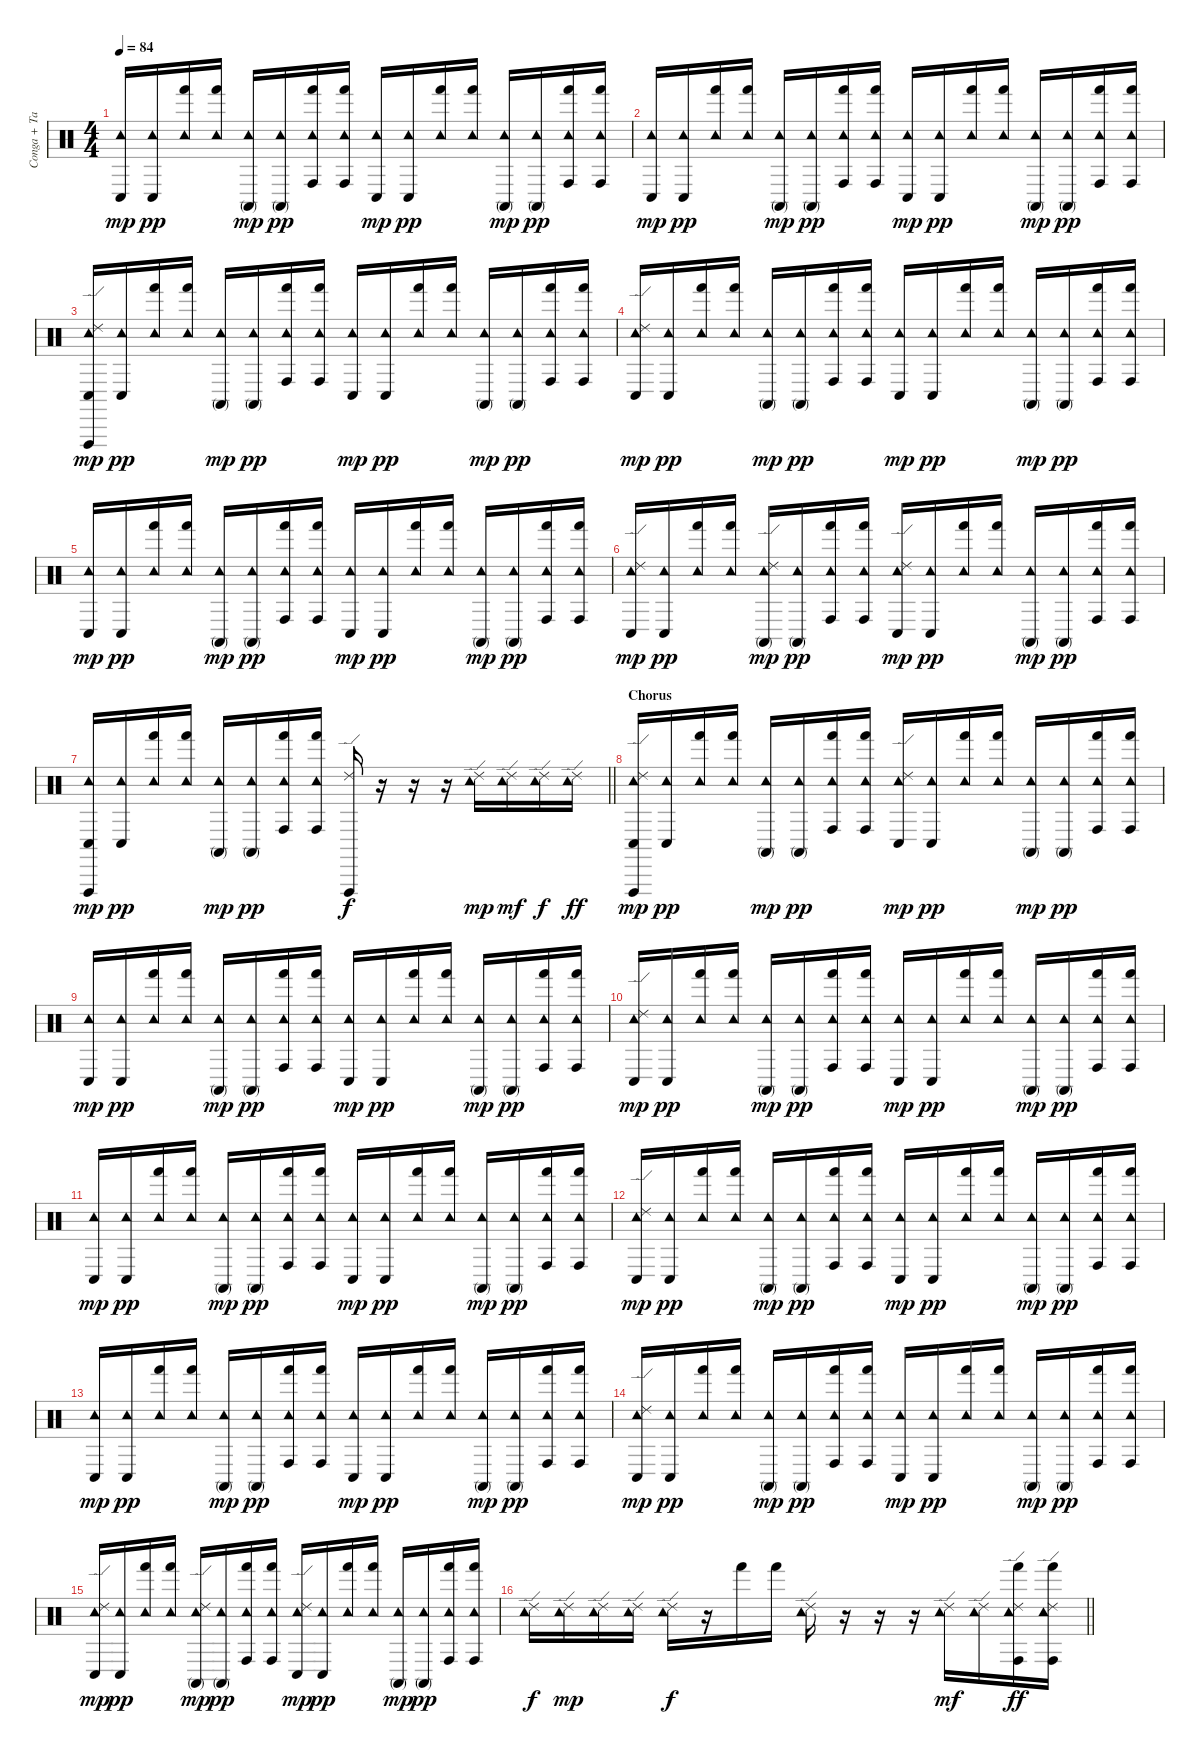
\track ("Conga + Tambourine" "Conga + Ta") {instrument percussion}
\staff {score}
\articulation defaults
\ts (4 4)
\tempo 84
\clef neutral
\ks c
("Conga low (hit)" "Tambourine (hit)").16{dy mp} ("Conga low (hit)" "Tambourine (hit)").16{dy pp} ("Hand (hit)" "Tambourine (hit)").16 ("Hand (hit)" "Tambourine (hit)").16 ("Conga high (mute)" "Tambourine (hit)").16{dy mp} ("Conga high (mute)" "Tambourine (hit)").16{dy pp} ("Conga high (hit)" "Hand (hit)" "Tambourine (hit)").16 ("Conga high (hit)" "Hand (hit)" "Tambourine (hit)").16 ("Conga low (hit)" "Tambourine (hit)").16{dy mp} ("Conga low (hit)" "Tambourine (hit)").16{dy pp} ("Hand (hit)" "Tambourine (hit)").16 ("Hand (hit)" "Tambourine (hit)").16 ("Conga high (mute)" "Tambourine (hit)").16{dy mp} ("Conga high (mute)" "Tambourine (hit)").16{dy pp} ("Conga high (hit)" "Hand (hit)" "Tambourine (hit)").16 ("Conga high (hit)" "Hand (hit)" "Tambourine (hit)").16 |
("Conga low (hit)" "Tambourine (hit)").16{dy mp} ("Conga low (hit)" "Tambourine (hit)").16{dy pp} ("Hand (hit)" "Tambourine (hit)").16 ("Hand (hit)" "Tambourine (hit)").16 ("Conga high (mute)" "Tambourine (hit)").16{dy mp} ("Conga high (mute)" "Tambourine (hit)").16{dy pp} ("Conga high (hit)" "Hand (hit)" "Tambourine (hit)").16 ("Conga high (hit)" "Hand (hit)" "Tambourine (hit)").16 ("Conga low (hit)" "Tambourine (hit)").16{dy mp} ("Conga low (hit)" "Tambourine (hit)").16{dy pp} ("Hand (hit)" "Tambourine (hit)").16 ("Hand (hit)" "Tambourine (hit)").16 ("Conga high (mute)" "Tambourine (hit)").16{dy mp} ("Conga high (mute)" "Tambourine (hit)").16{dy pp} ("Conga high (hit)" "Hand (hit)" "Tambourine (hit)").16 ("Conga high (hit)" "Hand (hit)" "Tambourine (hit)").16 |
("Conga low (hit)" "Vibraslap (hit)" "Tambourine (hit)" "Ride (edge) 2").16{dy mp} ("Conga low (hit)" "Tambourine (hit)").16{dy pp} ("Hand (hit)" "Tambourine (hit)").16 ("Hand (hit)" "Tambourine (hit)").16 ("Conga high (mute)" "Tambourine (hit)").16{dy mp} ("Conga high (mute)" "Tambourine (hit)").16{dy pp} ("Conga high (hit)" "Hand (hit)" "Tambourine (hit)").16 ("Conga high (hit)" "Hand (hit)" "Tambourine (hit)").16 ("Conga low (hit)" "Tambourine (hit)").16{dy mp} ("Conga low (hit)" "Tambourine (hit)").16{dy pp} ("Hand (hit)" "Tambourine (hit)").16 ("Hand (hit)" "Tambourine (hit)").16 ("Conga high (mute)" "Tambourine (hit)").16{dy mp} ("Conga high (mute)" "Tambourine (hit)").16{dy pp} ("Conga high (hit)" "Hand (hit)" "Tambourine (hit)").16 ("Conga high (hit)" "Hand (hit)" "Tambourine (hit)").16 |
("Conga low (hit)" "Tambourine (hit)" "Ride (edge) 2").16{dy mp} ("Conga low (hit)" "Tambourine (hit)").16{dy pp} ("Hand (hit)" "Tambourine (hit)").16 ("Hand (hit)" "Tambourine (hit)").16 ("Conga high (mute)" "Tambourine (hit)").16{dy mp} ("Conga high (mute)" "Tambourine (hit)").16{dy pp} ("Conga high (hit)" "Hand (hit)" "Tambourine (hit)").16 ("Conga high (hit)" "Hand (hit)" "Tambourine (hit)").16 ("Conga low (hit)" "Tambourine (hit)").16{dy mp} ("Conga low (hit)" "Tambourine (hit)").16{dy pp} ("Hand (hit)" "Tambourine (hit)").16 ("Hand (hit)" "Tambourine (hit)").16 ("Conga high (mute)" "Tambourine (hit)").16{dy mp} ("Conga high (mute)" "Tambourine (hit)").16{dy pp} ("Conga high (hit)" "Hand (hit)" "Tambourine (hit)").16 ("Conga high (hit)" "Hand (hit)" "Tambourine (hit)").16 |
("Conga low (hit)" "Tambourine (hit)").16{dy mp} ("Conga low (hit)" "Tambourine (hit)").16{dy pp} ("Hand (hit)" "Tambourine (hit)").16 ("Hand (hit)" "Tambourine (hit)").16 ("Conga high (mute)" "Tambourine (hit)").16{dy mp} ("Conga high (mute)" "Tambourine (hit)").16{dy pp} ("Conga high (hit)" "Hand (hit)" "Tambourine (hit)").16 ("Conga high (hit)" "Hand (hit)" "Tambourine (hit)").16 ("Conga low (hit)" "Tambourine (hit)").16{dy mp} ("Conga low (hit)" "Tambourine (hit)").16{dy pp} ("Hand (hit)" "Tambourine (hit)").16 ("Hand (hit)" "Tambourine (hit)").16 ("Conga high (mute)" "Tambourine (hit)").16{dy mp} ("Conga high (mute)" "Tambourine (hit)").16{dy pp} ("Conga high (hit)" "Hand (hit)" "Tambourine (hit)").16 ("Conga high (hit)" "Hand (hit)" "Tambourine (hit)").16 |
("Conga low (hit)" "Tambourine (hit)" "Ride (edge) 2").16{dy mp} ("Conga low (hit)" "Tambourine (hit)").16{dy pp} ("Hand (hit)" "Tambourine (hit)").16 ("Hand (hit)" "Tambourine (hit)").16 ("Conga high (mute)" "Tambourine (hit)" "Ride (edge) 2").16{dy mp} ("Conga high (mute)" "Tambourine (hit)").16{dy pp} ("Conga high (hit)" "Hand (hit)" "Tambourine (hit)").16 ("Conga high (hit)" "Hand (hit)" "Tambourine (hit)").16 ("Conga low (hit)" "Tambourine (hit)" "Ride (edge) 2").16{dy mp} ("Conga low (hit)" "Tambourine (hit)").16{dy pp} ("Hand (hit)" "Tambourine (hit)").16 ("Hand (hit)" "Tambourine (hit)").16 ("Conga high (mute)" "Tambourine (hit)").16{dy mp} ("Conga high (mute)" "Tambourine (hit)").16{dy pp} ("Conga high (hit)" "Hand (hit)" "Tambourine (hit)").16 ("Conga high (hit)" "Hand (hit)" "Tambourine (hit)").16 |
\barLineRight lightlight
("Conga low (hit)" "Vibraslap (hit)" "Tambourine (hit)").16{dy mp} ("Conga low (hit)" "Tambourine (hit)").16{dy pp} ("Hand (hit)" "Tambourine (hit)").16 ("Hand (hit)" "Tambourine (hit)").16 ("Conga high (mute)" "Tambourine (hit)").16{dy mp} ("Conga high (mute)" "Tambourine (hit)").16{dy pp} ("Conga high (hit)" "Hand (hit)" "Tambourine (hit)").16 ("Conga high (hit)" "Hand (hit)" "Tambourine (hit)").16 ("Vibraslap (hit)" "Ride (edge) 2").16{dy f} r.16 r.16 r.16 ("Tambourine (hit)" "Ride (edge) 2").16{dy mp} ("Tambourine (hit)" "Ride (edge) 2").16{dy mf} ("Tambourine (hit)" "Ride (edge) 2").16{dy f} ("Tambourine (hit)" "Ride (edge) 2").16{dy ff} |
\section ("" "Chorus")
("Conga low (hit)" "Vibraslap (hit)" "Tambourine (hit)" "Ride (edge) 2").16{dy mp} ("Conga low (hit)" "Tambourine (hit)").16{dy pp} ("Hand (hit)" "Tambourine (hit)").16 ("Hand (hit)" "Tambourine (hit)").16 ("Conga high (mute)" "Tambourine (hit)").16{dy mp} ("Conga high (mute)" "Tambourine (hit)").16{dy pp} ("Conga high (hit)" "Hand (hit)" "Tambourine (hit)").16 ("Conga high (hit)" "Hand (hit)" "Tambourine (hit)").16 ("Conga low (hit)" "Tambourine (hit)" "Ride (edge) 2").16{dy mp} ("Conga low (hit)" "Tambourine (hit)").16{dy pp} ("Hand (hit)" "Tambourine (hit)").16 ("Hand (hit)" "Tambourine (hit)").16 ("Conga high (mute)" "Tambourine (hit)").16{dy mp} ("Conga high (mute)" "Tambourine (hit)").16{dy pp} ("Conga high (hit)" "Hand (hit)" "Tambourine (hit)").16 ("Conga high (hit)" "Hand (hit)" "Tambourine (hit)").16 |
("Conga low (hit)" "Tambourine (hit)").16{dy mp} ("Conga low (hit)" "Tambourine (hit)").16{dy pp} ("Hand (hit)" "Tambourine (hit)").16 ("Hand (hit)" "Tambourine (hit)").16 ("Conga high (mute)" "Tambourine (hit)").16{dy mp} ("Conga high (mute)" "Tambourine (hit)").16{dy pp} ("Conga high (hit)" "Hand (hit)" "Tambourine (hit)").16 ("Conga high (hit)" "Hand (hit)" "Tambourine (hit)").16 ("Conga low (hit)" "Tambourine (hit)").16{dy mp} ("Conga low (hit)" "Tambourine (hit)").16{dy pp} ("Hand (hit)" "Tambourine (hit)").16 ("Hand (hit)" "Tambourine (hit)").16 ("Conga high (mute)" "Tambourine (hit)").16{dy mp} ("Conga high (mute)" "Tambourine (hit)").16{dy pp} ("Conga high (hit)" "Hand (hit)" "Tambourine (hit)").16 ("Conga high (hit)" "Hand (hit)" "Tambourine (hit)").16 |
("Conga low (hit)" "Tambourine (hit)" "Ride (edge) 2").16{dy mp} ("Conga low (hit)" "Tambourine (hit)").16{dy pp} ("Hand (hit)" "Tambourine (hit)").16 ("Hand (hit)" "Tambourine (hit)").16 ("Conga high (mute)" "Tambourine (hit)").16{dy mp} ("Conga high (mute)" "Tambourine (hit)").16{dy pp} ("Conga high (hit)" "Hand (hit)" "Tambourine (hit)").16 ("Conga high (hit)" "Hand (hit)" "Tambourine (hit)").16 ("Conga low (hit)" "Tambourine (hit)").16{dy mp} ("Conga low (hit)" "Tambourine (hit)").16{dy pp} ("Hand (hit)" "Tambourine (hit)").16 ("Hand (hit)" "Tambourine (hit)").16 ("Conga high (mute)" "Tambourine (hit)").16{dy mp} ("Conga high (mute)" "Tambourine (hit)").16{dy pp} ("Conga high (hit)" "Hand (hit)" "Tambourine (hit)").16 ("Conga high (hit)" "Hand (hit)" "Tambourine (hit)").16 |
("Conga low (hit)" "Tambourine (hit)").16{dy mp} ("Conga low (hit)" "Tambourine (hit)").16{dy pp} ("Hand (hit)" "Tambourine (hit)").16 ("Hand (hit)" "Tambourine (hit)").16 ("Conga high (mute)" "Tambourine (hit)").16{dy mp} ("Conga high (mute)" "Tambourine (hit)").16{dy pp} ("Conga high (hit)" "Hand (hit)" "Tambourine (hit)").16 ("Conga high (hit)" "Hand (hit)" "Tambourine (hit)").16 ("Conga low (hit)" "Tambourine (hit)").16{dy mp} ("Conga low (hit)" "Tambourine (hit)").16{dy pp} ("Hand (hit)" "Tambourine (hit)").16 ("Hand (hit)" "Tambourine (hit)").16 ("Conga high (mute)" "Tambourine (hit)").16{dy mp} ("Conga high (mute)" "Tambourine (hit)").16{dy pp} ("Conga high (hit)" "Hand (hit)" "Tambourine (hit)").16 ("Conga high (hit)" "Hand (hit)" "Tambourine (hit)").16 |
("Conga low (hit)" "Tambourine (hit)" "Ride (edge) 2").16{dy mp} ("Conga low (hit)" "Tambourine (hit)").16{dy pp} ("Hand (hit)" "Tambourine (hit)").16 ("Hand (hit)" "Tambourine (hit)").16 ("Conga high (mute)" "Tambourine (hit)").16{dy mp} ("Conga high (mute)" "Tambourine (hit)").16{dy pp} ("Conga high (hit)" "Hand (hit)" "Tambourine (hit)").16 ("Conga high (hit)" "Hand (hit)" "Tambourine (hit)").16 ("Conga low (hit)" "Tambourine (hit)").16{dy mp} ("Conga low (hit)" "Tambourine (hit)").16{dy pp} ("Hand (hit)" "Tambourine (hit)").16 ("Hand (hit)" "Tambourine (hit)").16 ("Conga high (mute)" "Tambourine (hit)").16{dy mp} ("Conga high (mute)" "Tambourine (hit)").16{dy pp} ("Conga high (hit)" "Hand (hit)" "Tambourine (hit)").16 ("Conga high (hit)" "Hand (hit)" "Tambourine (hit)").16 |
("Conga low (hit)" "Tambourine (hit)").16{dy mp} ("Conga low (hit)" "Tambourine (hit)").16{dy pp} ("Hand (hit)" "Tambourine (hit)").16 ("Hand (hit)" "Tambourine (hit)").16 ("Conga high (mute)" "Tambourine (hit)").16{dy mp} ("Conga high (mute)" "Tambourine (hit)").16{dy pp} ("Conga high (hit)" "Hand (hit)" "Tambourine (hit)").16 ("Conga high (hit)" "Hand (hit)" "Tambourine (hit)").16 ("Conga low (hit)" "Tambourine (hit)").16{dy mp} ("Conga low (hit)" "Tambourine (hit)").16{dy pp} ("Hand (hit)" "Tambourine (hit)").16 ("Hand (hit)" "Tambourine (hit)").16 ("Conga high (mute)" "Tambourine (hit)").16{dy mp} ("Conga high (mute)" "Tambourine (hit)").16{dy pp} ("Conga high (hit)" "Hand (hit)" "Tambourine (hit)").16 ("Conga high (hit)" "Hand (hit)" "Tambourine (hit)").16 |
("Conga low (hit)" "Tambourine (hit)" "Ride (edge) 2").16{dy mp} ("Conga low (hit)" "Tambourine (hit)").16{dy pp} ("Hand (hit)" "Tambourine (hit)").16 ("Hand (hit)" "Tambourine (hit)").16 ("Conga high (mute)" "Tambourine (hit)").16{dy mp} ("Conga high (mute)" "Tambourine (hit)").16{dy pp} ("Conga high (hit)" "Hand (hit)" "Tambourine (hit)").16 ("Conga high (hit)" "Hand (hit)" "Tambourine (hit)").16 ("Conga low (hit)" "Tambourine (hit)").16{dy mp} ("Conga low (hit)" "Tambourine (hit)").16{dy pp} ("Hand (hit)" "Tambourine (hit)").16 ("Hand (hit)" "Tambourine (hit)").16 ("Conga high (mute)" "Tambourine (hit)").16{dy mp} ("Conga high (mute)" "Tambourine (hit)").16{dy pp} ("Conga high (hit)" "Hand (hit)" "Tambourine (hit)").16 ("Conga high (hit)" "Hand (hit)" "Tambourine (hit)").16 |
("Conga low (hit)" "Tambourine (hit)" "Ride (edge) 2").16{dy mp} ("Conga low (hit)" "Tambourine (hit)").16{dy pp} ("Hand (hit)" "Tambourine (hit)").16 ("Hand (hit)" "Tambourine (hit)").16 ("Conga high (mute)" "Tambourine (hit)" "Ride (edge) 2").16{dy mp} ("Conga high (mute)" "Tambourine (hit)").16{dy pp} ("Conga high (hit)" "Hand (hit)" "Tambourine (hit)").16 ("Conga high (hit)" "Hand (hit)" "Tambourine (hit)").16 ("Conga low (hit)" "Tambourine (hit)" "Ride (edge) 2").16{dy mp} ("Conga low (hit)" "Tambourine (hit)").16{dy pp} ("Hand (hit)" "Tambourine (hit)").16 ("Hand (hit)" "Tambourine (hit)").16 ("Conga high (mute)" "Tambourine (hit)").16{dy mp} ("Conga high (mute)" "Tambourine (hit)").16{dy pp} ("Conga high (hit)" "Hand (hit)" "Tambourine (hit)").16 ("Conga high (hit)" "Hand (hit)" "Tambourine (hit)").16 |
\barLineRight lightlight
("Tambourine (hit)" "Ride (edge) 2").16{dy f} ("Tambourine (hit)" "Ride (edge) 2").16{dy mp} ("Tambourine (hit)" "Ride (edge) 2").16 ("Tambourine (hit)" "Ride (edge) 2").16 ("Tambourine (hit)" "Ride (edge) 2").16{dy f} r.16 "Hand (hit)".16 "Hand (hit)".16 ("Tambourine (hit)" "Ride (edge) 2").16 r.16 r.16 r.16 ("Tambourine (hit)" "Ride (edge) 2").16{dy mf} ("Tambourine (hit)" "Ride (edge) 2").16 ("Conga high (hit)" "Hand (hit)" "Tambourine (hit)" "Ride (edge) 2").16{dy ff} ("Conga high (hit)" "Hand (hit)" "Tambourine (hit)" "Ride (edge) 2").16
